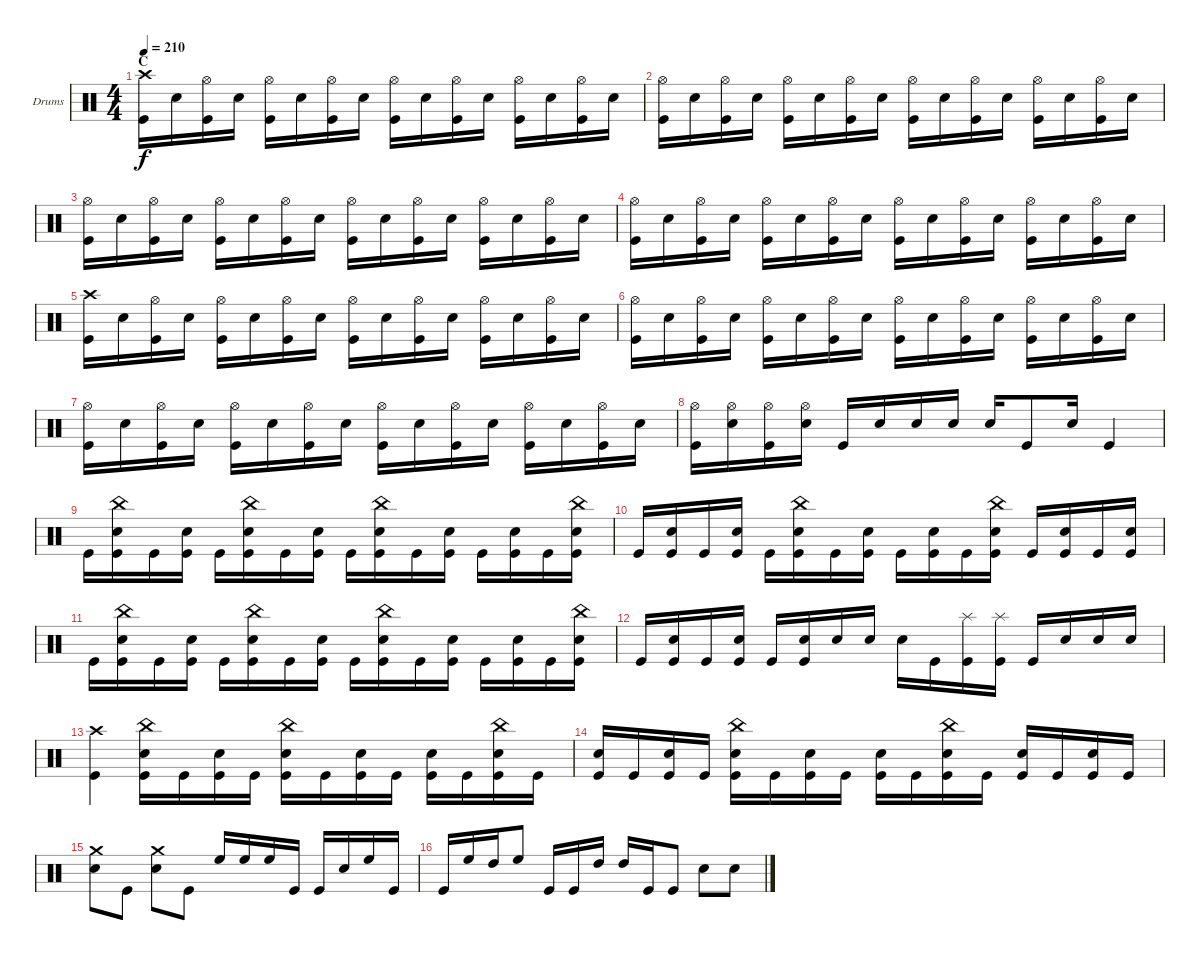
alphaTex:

\bracketExtendMode groupsimilarinstruments
\firstSystemTrackNameOrientation horizontal
\otherSystemsTrackNameOrientation horizontal
\track ("Drumkit" "Drums") {instrument percussion}
\staff {score}
\articulation defaults
\ts (4 4)
\section ("" "C")
\tempo 210
\clef neutral
\ks c
("Kick (hit)" "Crash high (hit)").16{dy f} "Snare (hit) 2".16 ("Kick (hit)" "Hi-Hat (open)").16 "Snare (hit) 2".16 ("Kick (hit)" "Hi-Hat (open)").16 "Snare (hit) 2".16 ("Kick (hit)" "Hi-Hat (open)").16 "Snare (hit) 2".16 ("Kick (hit)" "Hi-Hat (open)").16 "Snare (hit) 2".16 ("Kick (hit)" "Hi-Hat (open)").16 "Snare (hit) 2".16 ("Kick (hit)" "Hi-Hat (open)").16 "Snare (hit) 2".16 ("Kick (hit)" "Hi-Hat (open)").16 "Snare (hit) 2".16 |
("Kick (hit)" "Hi-Hat (open)").16 "Snare (hit) 2".16 ("Kick (hit)" "Hi-Hat (open)").16 "Snare (hit) 2".16 ("Kick (hit)" "Hi-Hat (open)").16 "Snare (hit) 2".16 ("Kick (hit)" "Hi-Hat (open)").16 "Snare (hit) 2".16 ("Kick (hit)" "Hi-Hat (open)").16 "Snare (hit) 2".16 ("Kick (hit)" "Hi-Hat (open)").16 "Snare (hit) 2".16 ("Kick (hit)" "Hi-Hat (open)").16 "Snare (hit) 2".16 ("Kick (hit)" "Hi-Hat (open)").16 "Snare (hit) 2".16 |
("Kick (hit)" "Hi-Hat (open)").16 "Snare (hit) 2".16 ("Kick (hit)" "Hi-Hat (open)").16 "Snare (hit) 2".16 ("Kick (hit)" "Hi-Hat (open)").16 "Snare (hit) 2".16 ("Kick (hit)" "Hi-Hat (open)").16 "Snare (hit) 2".16 ("Kick (hit)" "Hi-Hat (open)").16 "Snare (hit) 2".16 ("Kick (hit)" "Hi-Hat (open)").16 "Snare (hit) 2".16 ("Kick (hit)" "Hi-Hat (open)").16 "Snare (hit) 2".16 ("Kick (hit)" "Hi-Hat (open)").16 "Snare (hit) 2".16 |
("Kick (hit)" "Hi-Hat (open)").16 "Snare (hit) 2".16 ("Kick (hit)" "Hi-Hat (open)").16 "Snare (hit) 2".16 ("Kick (hit)" "Hi-Hat (open)").16 "Snare (hit) 2".16 ("Kick (hit)" "Hi-Hat (open)").16 "Snare (hit) 2".16 ("Kick (hit)" "Hi-Hat (open)").16 "Snare (hit) 2".16 ("Kick (hit)" "Hi-Hat (open)").16 "Snare (hit) 2".16 ("Kick (hit)" "Hi-Hat (open)").16 "Snare (hit) 2".16 ("Kick (hit)" "Hi-Hat (open)").16 "Snare (hit) 2".16 |
("Kick (hit)" "Crash high (hit)").16 "Snare (hit) 2".16 ("Kick (hit)" "Hi-Hat (open)").16 "Snare (hit) 2".16 ("Kick (hit)" "Hi-Hat (open)").16 "Snare (hit) 2".16 ("Kick (hit)" "Hi-Hat (open)").16 "Snare (hit) 2".16 ("Kick (hit)" "Hi-Hat (open)").16 "Snare (hit) 2".16 ("Kick (hit)" "Hi-Hat (open)").16 "Snare (hit) 2".16 ("Kick (hit)" "Hi-Hat (open)").16 "Snare (hit) 2".16 ("Kick (hit)" "Hi-Hat (open)").16 "Snare (hit) 2".16 |
("Kick (hit)" "Hi-Hat (open)").16 "Snare (hit) 2".16 ("Kick (hit)" "Hi-Hat (open)").16 "Snare (hit) 2".16 ("Kick (hit)" "Hi-Hat (open)").16 "Snare (hit) 2".16 ("Kick (hit)" "Hi-Hat (open)").16 "Snare (hit) 2".16 ("Kick (hit)" "Hi-Hat (open)").16 "Snare (hit) 2".16 ("Kick (hit)" "Hi-Hat (open)").16 "Snare (hit) 2".16 ("Kick (hit)" "Hi-Hat (open)").16 "Snare (hit) 2".16 ("Kick (hit)" "Hi-Hat (open)").16 "Snare (hit) 2".16 |
("Kick (hit)" "Hi-Hat (open)").16 "Snare (hit) 2".16 ("Kick (hit)" "Hi-Hat (open)").16 "Snare (hit) 2".16 ("Kick (hit)" "Hi-Hat (open)").16 "Snare (hit) 2".16 ("Kick (hit)" "Hi-Hat (open)").16 "Snare (hit) 2".16 ("Kick (hit)" "Hi-Hat (open)").16 "Snare (hit) 2".16 ("Kick (hit)" "Hi-Hat (open)").16 "Snare (hit) 2".16 ("Kick (hit)" "Hi-Hat (open)").16 "Snare (hit) 2".16 ("Kick (hit)" "Hi-Hat (open)").16 "Snare (hit) 2".16 |
("Hi-Hat (open)" "Kick (hit)").16 ("Hi-Hat (open)" "Snare (hit) 2").16 ("Hi-Hat (open)" "Kick (hit)").16 ("Hi-Hat (open)" "Snare (hit) 2").16 "Kick (hit)".16 "Snare (hit) 2".16 "Snare (hit) 2".16 "Snare (hit) 2".16 "Snare (hit) 2".16 "Kick (hit)".8 "Snare (hit) 2".16 "Kick (hit)".4 |
"Kick (hit)".16 ("China (hit)" "Snare (hit) 2" "Kick (hit)").16 "Kick (hit)".16 ("Snare (hit) 2" "Kick (hit)").16 "Kick (hit)".16 ("China (hit)" "Snare (hit) 2" "Kick (hit)").16 "Kick (hit)".16 ("Snare (hit) 2" "Kick (hit)").16 "Kick (hit)".16 ("China (hit)" "Snare (hit) 2" "Kick (hit)").16 "Kick (hit)".16 ("Snare (hit) 2" "Kick (hit)").16 "Kick (hit)".16 ("Snare (hit) 2" "Kick (hit)").16 "Kick (hit)".16 ("China (hit)" "Snare (hit) 2" "Kick (hit)").16 |
"Kick (hit)".16 ("Snare (hit) 2" "Kick (hit)").16 "Kick (hit)".16 ("Snare (hit) 2" "Kick (hit)").16 "Kick (hit)".16 ("China (hit)" "Snare (hit) 2" "Kick (hit)").16 "Kick (hit)".16 ("Snare (hit) 2" "Kick (hit)").16 "Kick (hit)".16 ("Snare (hit) 2" "Kick (hit)").16 "Kick (hit)".16 ("China (hit)" "Snare (hit) 2" "Kick (hit)").16 "Kick (hit)".16 ("Snare (hit) 2" "Kick (hit)").16 "Kick (hit)".16 ("Snare (hit) 2" "Kick (hit)").16 |
"Kick (hit)".16 ("China (hit)" "Snare (hit) 2" "Kick (hit)").16 "Kick (hit)".16 ("Snare (hit) 2" "Kick (hit)").16 "Kick (hit)".16 ("China (hit)" "Snare (hit) 2" "Kick (hit)").16 "Kick (hit)".16 ("Snare (hit) 2" "Kick (hit)").16 "Kick (hit)".16 ("China (hit)" "Snare (hit) 2" "Kick (hit)").16 "Kick (hit)".16 ("Snare (hit) 2" "Kick (hit)").16 "Kick (hit)".16 ("Snare (hit) 2" "Kick (hit)").16 "Kick (hit)".16 ("China (hit)" "Snare (hit) 2" "Kick (hit)").16 |
"Kick (hit)".16 ("Snare (hit) 2" "Kick (hit)").16 "Kick (hit)".16 ("Snare (hit) 2" "Kick (hit)").16 "Kick (hit)".16 ("Snare (hit) 2" "Kick (hit)").16 "Snare (hit) 2".16 "Snare (hit) 2".16 "Snare (hit) 2".16 "Kick (hit)".16 ("Splash (hit)" "Kick (hit)").16 ("Splash (hit)" "Kick (hit)").16 "Kick (hit)".16 "Snare (hit) 2".16 "Snare (hit) 2".16 "Snare (hit) 2".16 |
("Crash high (hit)" "Kick (hit)").4 ("China (hit)" "Snare (hit) 2" "Kick (hit)").16 "Kick (hit)".16 ("Snare (hit) 2" "Kick (hit)").16 "Kick (hit)".16 ("China (hit)" "Snare (hit) 2" "Kick (hit)").16 "Kick (hit)".16 ("Snare (hit) 2" "Kick (hit)").16 "Kick (hit)".16 ("Snare (hit) 2" "Kick (hit)").16 "Kick (hit)".16 ("China (hit)" "Snare (hit) 2" "Kick (hit)").16 "Kick (hit)".16 |
("Snare (hit) 2" "Kick (hit)").16 "Kick (hit)".16 ("Snare (hit) 2" "Kick (hit)").16 "Kick (hit)".16 ("China (hit)" "Snare (hit) 2" "Kick (hit)").16 "Kick (hit)".16 ("Snare (hit) 2" "Kick (hit)").16 "Kick (hit)".16 ("Snare (hit) 2" "Kick (hit)").16 "Kick (hit)".16 ("China (hit)" "Snare (hit) 2" "Kick (hit)").16 "Kick (hit)".16 ("Snare (hit) 2" "Kick (hit)").16 "Kick (hit)".16 ("Snare (hit) 2" "Kick (hit)").16 "Kick (hit)".16 |
("Crash medium (hit)" "Snare (hit) 2").8 "Kick (hit)".8 ("Crash medium (hit)" "Snare (hit) 2").8 "Kick (hit)".8 "High Floor Tom (hit)".16 "High Floor Tom (hit)".16 "High Floor Tom (hit)".16 "Kick (hit)".16 "Kick (hit)".16 "Snare (hit) 2".16 "High Floor Tom (hit)".16 "Kick (hit)".16 |
"Kick (hit)".16 "High Floor Tom (hit)".16 "High Tom (hit)".16 "High Floor Tom (hit)".8 "Kick (hit)".16 "Kick (hit)".16 "High Tom (hit)".16 "High Tom (hit)".16 "Kick (hit)".16 "Kick (hit)".8 "Snare (hit) 2".8 "Snare (hit) 2".8
